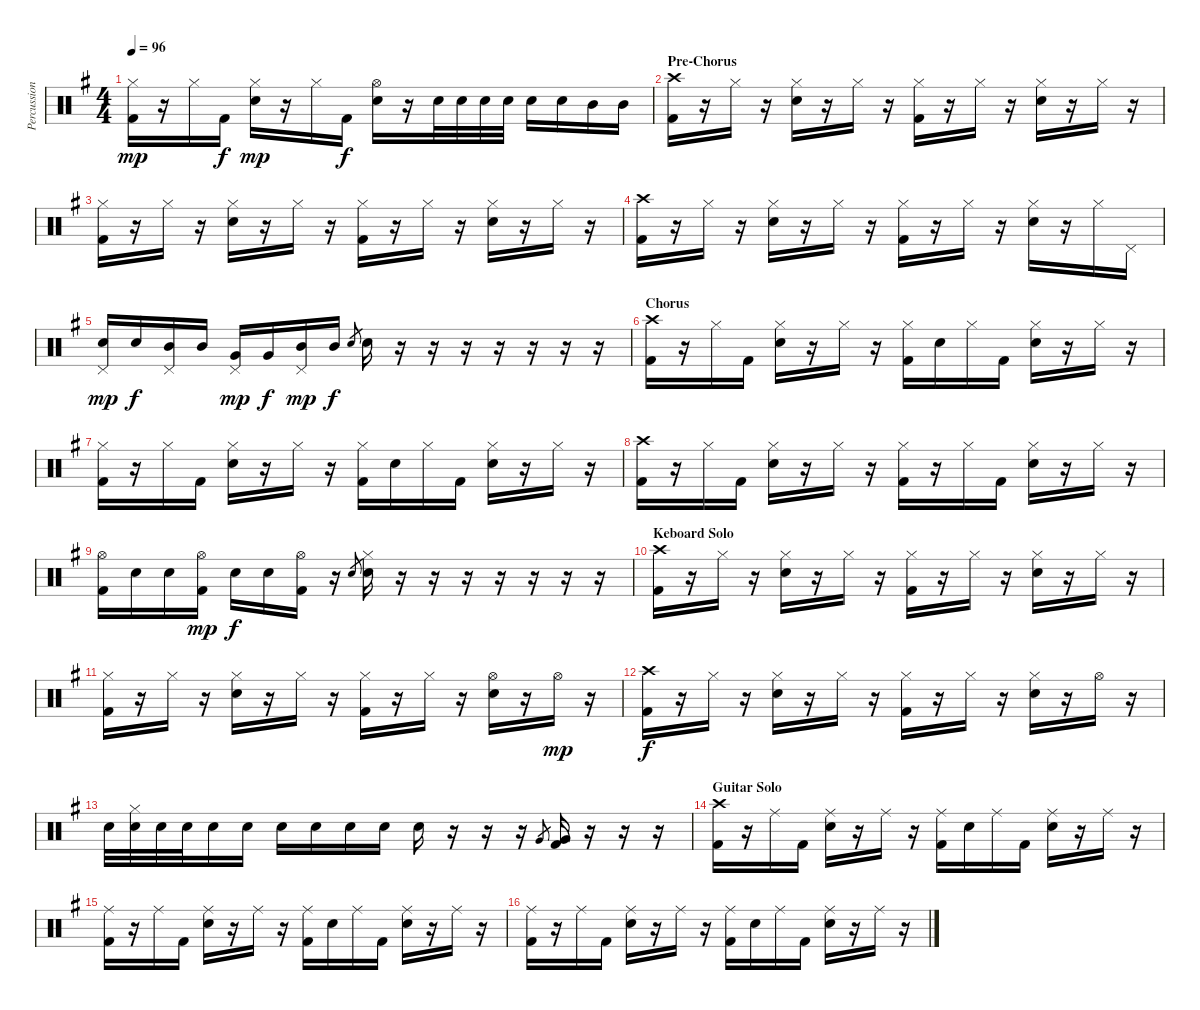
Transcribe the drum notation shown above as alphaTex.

\track ("Percussion" "Percussion") {instrument percussion}
\staff {score}
\articulation defaults
\ts (4 4)
\tempo 96
\clef neutral
\ks g
("Hi-Hat (closed)" "Kick (hit) 2").16{dy mp} r.16 "Hi-Hat (closed)".16 "Kick (hit) 2".16{dy f} ("Hi-Hat (closed)" "Snare (hit) 2").16{dy mp} r.16 "Hi-Hat (closed)".16 "Kick (hit) 2".16{dy f} ("Hi-Hat (open)" "Snare (hit) 2").16 r.16 "Snare (hit) 2".32 "Snare (hit) 2".32 "Snare (hit) 2".32 "Snare (hit) 2".32 "Snare (hit) 2".16 "Snare (hit) 2".16 "Mid Tom (hit)".16 "Mid Tom (hit)".16 |
\section ("" "Pre-Chorus")
("Crash high (hit)" "Kick (hit) 2").16 r.16 "Hi-Hat (closed)".16 r.16 ("Hi-Hat (closed)" "Snare (hit) 2").16 r.16 "Hi-Hat (closed)".16 r.16 ("Hi-Hat (closed)" "Kick (hit) 2").16 r.16 "Hi-Hat (closed)".16 r.16 ("Hi-Hat (closed)" "Snare (hit) 2").16 r.16 "Hi-Hat (closed)".16 r.16 |
("Hi-Hat (closed)" "Kick (hit) 2").16 r.16 "Hi-Hat (closed)".16 r.16 ("Hi-Hat (closed)" "Snare (hit) 2").16 r.16 "Hi-Hat (closed)".16 r.16 ("Hi-Hat (closed)" "Kick (hit) 2").16 r.16 "Hi-Hat (closed)".16 r.16 ("Hi-Hat (closed)" "Snare (hit) 2").16 r.16 "Hi-Hat (closed)".16 r.16 |
("Crash high (hit)" "Kick (hit) 2").16 r.16 "Hi-Hat (closed)".16 r.16 ("Hi-Hat (closed)" "Snare (hit) 2").16 r.16 "Hi-Hat (closed)".16 r.16 ("Hi-Hat (closed)" "Kick (hit) 2").16 r.16 "Hi-Hat (closed)".16 r.16 ("Hi-Hat (closed)" "Snare (hit) 2").16 r.16 "Hi-Hat (closed)".16 "Pedal Hi-Hat (hit)".16 |
("Pedal Hi-Hat (hit)" "Snare (hit) 2").16{dy mp} "Snare (hit) 2".16{dy f} ("Pedal Hi-Hat (hit)" "Mid Tom (hit)").16 "Mid Tom (hit)".16 ("Pedal Hi-Hat (hit)" "Very Low Tom (hit)").16{dy mp} "Very Low Tom (hit)".16{dy f} ("Pedal Hi-Hat (hit)" "Mid Tom (hit)").16{dy mp} "Mid Tom (hit)".16{dy f} "Snare (hit) 2".8{gr} "Snare (hit) 2".16 r.16 r.16 r.16 r.16 r.16 r.16 r.16 |
\section ("" "Chorus")
("Crash high (hit)" "Kick (hit) 2").16 r.16 "Hi-Hat (closed)".16 "Kick (hit) 2".16 ("Hi-Hat (closed)" "Snare (hit) 2").16 r.16 "Hi-Hat (closed)".16 r.16 ("Hi-Hat (closed)" "Kick (hit) 2").16 "Snare (hit) 2".16 "Hi-Hat (closed)".16 "Kick (hit) 2".16 ("Hi-Hat (closed)" "Snare (hit) 2").16 r.16 "Hi-Hat (closed)".16 r.16 |
("Hi-Hat (closed)" "Kick (hit) 2").16 r.16 "Hi-Hat (closed)".16 "Kick (hit) 2".16 ("Hi-Hat (closed)" "Snare (hit) 2").16 r.16 "Hi-Hat (closed)".16 r.16 ("Hi-Hat (closed)" "Kick (hit) 2").16 "Snare (hit) 2".16 "Hi-Hat (closed)".16 "Kick (hit) 2".16 ("Hi-Hat (closed)" "Snare (hit) 2").16 r.16 "Hi-Hat (closed)".16 r.16 |
("Crash high (hit)" "Kick (hit) 2").16 r.16 "Hi-Hat (closed)".16 "Kick (hit) 2".16 ("Hi-Hat (closed)" "Snare (hit) 2").16 r.16 "Hi-Hat (closed)".16 r.16 ("Hi-Hat (closed)" "Kick (hit) 2").16 r.16 "Hi-Hat (closed)".16 "Kick (hit) 2".16 ("Hi-Hat (closed)" "Snare (hit) 2").16 r.16 "Hi-Hat (closed)".16 r.16 |
("Hi-Hat (open)" "Kick (hit) 2").16 "Snare (hit) 2".16 "Snare (hit) 2".16 ("Hi-Hat (open)" "Kick (hit) 2").16{dy mp} "Snare (hit) 2".16{dy f} "Snare (hit) 2".16 ("Hi-Hat (open)" "Kick (hit) 2").16 r.16 "Snare (hit) 2".8{gr} ("Hi-Hat (closed)" "Snare (hit) 2").16 r.16 r.16 r.16 r.16 r.16 r.16 r.16 |
\section ("" "Keboard Solo")
("Crash high (hit)" "Kick (hit) 2").16 r.16 "Hi-Hat (closed)".16 r.16 ("Hi-Hat (closed)" "Snare (hit) 2").16 r.16 "Hi-Hat (closed)".16 r.16 ("Hi-Hat (closed)" "Kick (hit) 2").16 r.16 "Hi-Hat (closed)".16 r.16 ("Hi-Hat (closed)" "Snare (hit) 2").16 r.16 "Hi-Hat (closed)".16 r.16 |
("Hi-Hat (closed)" "Kick (hit) 2").16 r.16 "Hi-Hat (closed)".16 r.16 ("Hi-Hat (closed)" "Snare (hit) 2").16 r.16 "Hi-Hat (closed)".16 r.16 ("Hi-Hat (closed)" "Kick (hit) 2").16 r.16 "Hi-Hat (closed)".16 r.16 ("Hi-Hat (open)" "Snare (hit) 2").16 r.16 "Hi-Hat (open)".16{dy mp} r.16 |
("Crash high (hit)" "Kick (hit) 2").16{dy f} r.16 "Hi-Hat (closed)".16 r.16 ("Hi-Hat (closed)" "Snare (hit) 2").16 r.16 "Hi-Hat (closed)".16 r.16 ("Hi-Hat (closed)" "Kick (hit) 2").16 r.16 "Hi-Hat (closed)".16 r.16 ("Hi-Hat (closed)" "Snare (hit) 2").16 r.16 "Hi-Hat (open)".16 r.16 |
"Snare (hit) 2".32 ("Hi-Hat (closed)" "Snare (hit) 2").32 "Snare (hit) 2".32 "Snare (hit) 2".32 "Snare (hit) 2".16 "Snare (hit) 2".16 "Snare (hit) 2".16 "Snare (hit) 2".16 "Snare (hit) 2".16 "Snare (hit) 2".16 "Snare (hit) 2".16 r.16 r.16 r.16 "Very Low Tom (hit)".8{gr} ("Very Low Tom (hit)" "Kick (hit) 2").16 r.16 r.16 r.16 |
\section ("" "Guitar Solo")
("Crash high (hit)" "Kick (hit) 2").16 r.16 "Ride (middle)".16 "Kick (hit) 2".16 ("Ride (middle)" "Snare (hit) 2").16 r.16 "Ride (middle)".16 r.16 ("Ride (middle)" "Kick (hit) 2").16 "Snare (hit) 2".16 "Ride (middle)".16 "Kick (hit) 2".16 ("Ride (middle)" "Snare (hit) 2").16 r.16 "Ride (middle)".16 r.16 |
("Ride (middle)" "Kick (hit) 2").16 r.16 "Ride (middle)".16 "Kick (hit) 2".16 ("Ride (middle)" "Snare (hit) 2").16 r.16 "Ride (middle)".16 r.16 ("Ride (middle)" "Kick (hit) 2").16 "Snare (hit) 2".16 "Ride (middle)".16 "Kick (hit) 2".16 ("Ride (middle)" "Snare (hit) 2").16 r.16 "Ride (middle)".16 r.16 |
("Ride (middle)" "Kick (hit) 2").16 r.16 "Ride (middle)".16 "Kick (hit) 2".16 ("Ride (middle)" "Snare (hit) 2").16 r.16 "Ride (middle)".16 r.16 ("Ride (middle)" "Kick (hit) 2").16 "Snare (hit) 2".16 "Ride (middle)".16 "Kick (hit) 2".16 ("Ride (middle)" "Snare (hit) 2").16 r.16 "Ride (middle)".16 r.16
